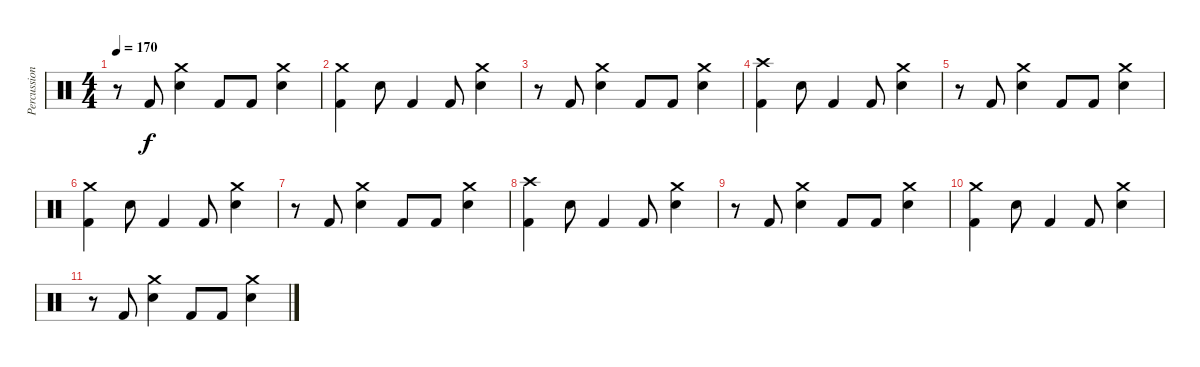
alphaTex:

\track ("Percussion" "Percussion") {instrument percussion}
\staff {score}
\articulation defaults
\ts (4 4)
\tempo 170
\clef neutral
\ks c
r.8{dy f} "Kick (hit) 2".8 ("Snare (hit) 2" "Crash medium (hit)").4 "Kick (hit) 2".8 "Kick (hit) 2".8 ("Snare (hit) 2" "Crash medium (hit)").4 |
("Crash medium (hit)" "Kick (hit) 2").4 "Snare (hit) 2".8 "Kick (hit) 2".4 "Kick (hit) 2".8 ("Snare (hit) 2" "Crash medium (hit)").4 |
r.8 "Kick (hit) 2".8 ("Snare (hit) 2" "Crash medium (hit)").4 "Kick (hit) 2".8 "Kick (hit) 2".8 ("Snare (hit) 2" "Crash medium (hit)").4 |
("Crash high (hit)" "Kick (hit) 2").4 "Snare (hit) 2".8 "Kick (hit) 2".4 "Kick (hit) 2".8 ("Snare (hit) 2" "Crash medium (hit)").4 |
r.8 "Kick (hit) 2".8 ("Snare (hit) 2" "Crash medium (hit)").4 "Kick (hit) 2".8 "Kick (hit) 2".8 ("Snare (hit) 2" "Crash medium (hit)").4 |
("Crash medium (hit)" "Kick (hit) 2").4 "Snare (hit) 2".8 "Kick (hit) 2".4 "Kick (hit) 2".8 ("Snare (hit) 2" "Crash medium (hit)").4 |
r.8 "Kick (hit) 2".8 ("Snare (hit) 2" "Crash medium (hit)").4 "Kick (hit) 2".8 "Kick (hit) 2".8 ("Snare (hit) 2" "Crash medium (hit)").4 |
("Crash high (hit)" "Kick (hit) 2").4 "Snare (hit) 2".8 "Kick (hit) 2".4 "Kick (hit) 2".8 ("Snare (hit) 2" "Crash medium (hit)").4 |
r.8 "Kick (hit) 2".8 ("Snare (hit) 2" "Crash medium (hit)").4 "Kick (hit) 2".8 "Kick (hit) 2".8 ("Snare (hit) 2" "Crash medium (hit)").4 |
("Crash medium (hit)" "Kick (hit) 2").4 "Snare (hit) 2".8 "Kick (hit) 2".4 "Kick (hit) 2".8 ("Snare (hit) 2" "Crash medium (hit)").4 |
r.8 "Kick (hit) 2".8 ("Snare (hit) 2" "Crash medium (hit)").4 "Kick (hit) 2".8 "Kick (hit) 2".8 ("Snare (hit) 2" "Crash medium (hit)").4
